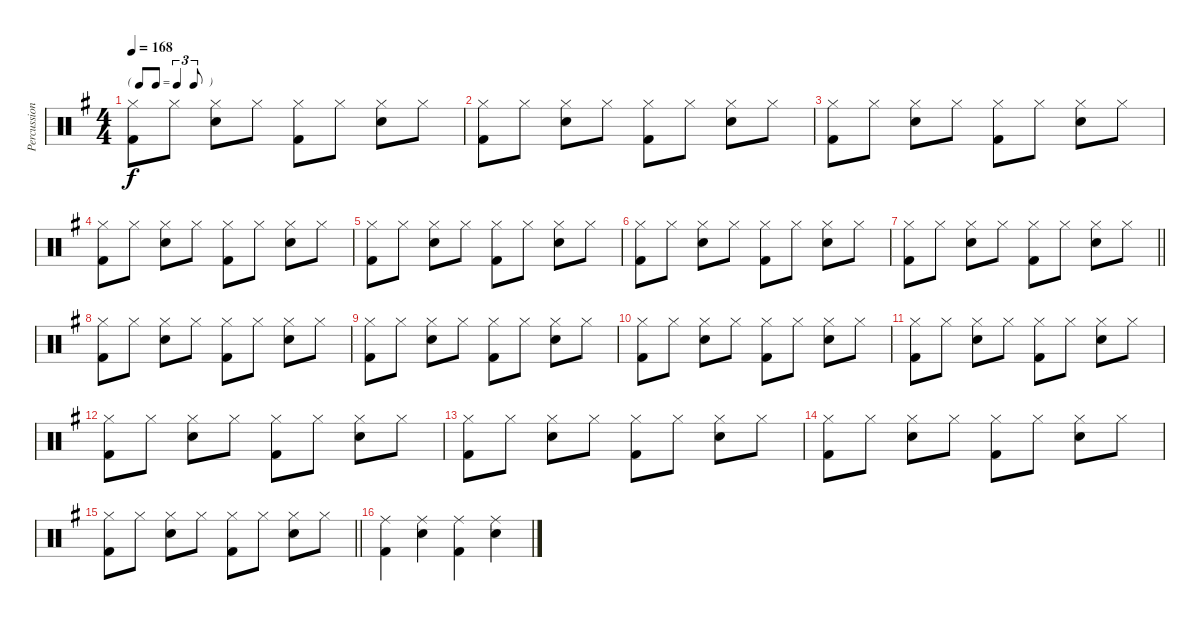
\track ("Percussion" "Percussion") {instrument percussion}
\staff {score}
\articulation defaults
\ts (4 4)
\tf triplet8th
\tempo 168
\clef neutral
\ks g
("Hi-Hat (closed)" "Kick (hit) 2").8{dy f} "Hi-Hat (closed)".8 ("Hi-Hat (closed)" "Snare (hit) 2").8 "Hi-Hat (closed)".8 ("Hi-Hat (closed)" "Kick (hit) 2").8 "Hi-Hat (closed)".8 ("Hi-Hat (closed)" "Snare (hit) 2").8 "Hi-Hat (closed)".8 |
("Hi-Hat (closed)" "Kick (hit) 2").8 "Hi-Hat (closed)".8 ("Hi-Hat (closed)" "Snare (hit) 2").8 "Hi-Hat (closed)".8 ("Hi-Hat (closed)" "Kick (hit) 2").8 "Hi-Hat (closed)".8 ("Hi-Hat (closed)" "Snare (hit) 2").8 "Hi-Hat (closed)".8 |
("Hi-Hat (closed)" "Kick (hit) 2").8 "Hi-Hat (closed)".8 ("Hi-Hat (closed)" "Snare (hit) 2").8 "Hi-Hat (closed)".8 ("Hi-Hat (closed)" "Kick (hit) 2").8 "Hi-Hat (closed)".8 ("Hi-Hat (closed)" "Snare (hit) 2").8 "Hi-Hat (closed)".8 |
("Hi-Hat (closed)" "Kick (hit) 2").8 "Hi-Hat (closed)".8 ("Hi-Hat (closed)" "Snare (hit) 2").8 "Hi-Hat (closed)".8 ("Hi-Hat (closed)" "Kick (hit) 2").8 "Hi-Hat (closed)".8 ("Hi-Hat (closed)" "Snare (hit) 2").8 "Hi-Hat (closed)".8 |
("Hi-Hat (closed)" "Kick (hit) 2").8 "Hi-Hat (closed)".8 ("Hi-Hat (closed)" "Snare (hit) 2").8 "Hi-Hat (closed)".8 ("Hi-Hat (closed)" "Kick (hit) 2").8 "Hi-Hat (closed)".8 ("Hi-Hat (closed)" "Snare (hit) 2").8 "Hi-Hat (closed)".8 |
("Hi-Hat (closed)" "Kick (hit) 2").8 "Hi-Hat (closed)".8 ("Hi-Hat (closed)" "Snare (hit) 2").8 "Hi-Hat (closed)".8 ("Hi-Hat (closed)" "Kick (hit) 2").8 "Hi-Hat (closed)".8 ("Hi-Hat (closed)" "Snare (hit) 2").8 "Hi-Hat (closed)".8 |
\barLineRight lightlight
("Hi-Hat (closed)" "Kick (hit) 2").8 "Hi-Hat (closed)".8 ("Hi-Hat (closed)" "Snare (hit) 2").8 "Hi-Hat (closed)".8 ("Hi-Hat (closed)" "Kick (hit) 2").8 "Hi-Hat (closed)".8 ("Hi-Hat (closed)" "Snare (hit) 2").8 "Hi-Hat (closed)".8 |
("Hi-Hat (closed)" "Kick (hit) 2").8 "Hi-Hat (closed)".8 ("Hi-Hat (closed)" "Snare (hit) 2").8 "Hi-Hat (closed)".8 ("Hi-Hat (closed)" "Kick (hit) 2").8 "Hi-Hat (closed)".8 ("Hi-Hat (closed)" "Snare (hit) 2").8 "Hi-Hat (closed)".8 |
("Hi-Hat (closed)" "Kick (hit) 2").8 "Hi-Hat (closed)".8 ("Hi-Hat (closed)" "Snare (hit) 2").8 "Hi-Hat (closed)".8 ("Hi-Hat (closed)" "Kick (hit) 2").8 "Hi-Hat (closed)".8 ("Hi-Hat (closed)" "Snare (hit) 2").8 "Hi-Hat (closed)".8 |
("Hi-Hat (closed)" "Kick (hit) 2").8 "Hi-Hat (closed)".8 ("Hi-Hat (closed)" "Snare (hit) 2").8 "Hi-Hat (closed)".8 ("Hi-Hat (closed)" "Kick (hit) 2").8 "Hi-Hat (closed)".8 ("Hi-Hat (closed)" "Snare (hit) 2").8 "Hi-Hat (closed)".8 |
("Hi-Hat (closed)" "Kick (hit) 2").8 "Hi-Hat (closed)".8 ("Hi-Hat (closed)" "Snare (hit) 2").8 "Hi-Hat (closed)".8 ("Hi-Hat (closed)" "Kick (hit) 2").8 "Hi-Hat (closed)".8 ("Hi-Hat (closed)" "Snare (hit) 2").8 "Hi-Hat (closed)".8 |
("Hi-Hat (closed)" "Kick (hit) 2").8 "Hi-Hat (closed)".8 ("Hi-Hat (closed)" "Snare (hit) 2").8 "Hi-Hat (closed)".8 ("Hi-Hat (closed)" "Kick (hit) 2").8 "Hi-Hat (closed)".8 ("Hi-Hat (closed)" "Snare (hit) 2").8 "Hi-Hat (closed)".8 |
("Hi-Hat (closed)" "Kick (hit) 2").8 "Hi-Hat (closed)".8 ("Hi-Hat (closed)" "Snare (hit) 2").8 "Hi-Hat (closed)".8 ("Hi-Hat (closed)" "Kick (hit) 2").8 "Hi-Hat (closed)".8 ("Hi-Hat (closed)" "Snare (hit) 2").8 "Hi-Hat (closed)".8 |
("Hi-Hat (closed)" "Kick (hit) 2").8 "Hi-Hat (closed)".8 ("Hi-Hat (closed)" "Snare (hit) 2").8 "Hi-Hat (closed)".8 ("Hi-Hat (closed)" "Kick (hit) 2").8 "Hi-Hat (closed)".8 ("Hi-Hat (closed)" "Snare (hit) 2").8 "Hi-Hat (closed)".8 |
\barLineRight lightlight
("Hi-Hat (closed)" "Kick (hit) 2").8 "Hi-Hat (closed)".8 ("Hi-Hat (closed)" "Snare (hit) 2").8 "Hi-Hat (closed)".8 ("Hi-Hat (closed)" "Kick (hit) 2").8 "Hi-Hat (closed)".8 ("Hi-Hat (closed)" "Snare (hit) 2").8 "Hi-Hat (closed)".8 |
("Ride (middle)" "Kick (hit) 2").4 ("Ride (middle)" "Snare (hit) 2").4 ("Ride (middle)" "Kick (hit) 2").4 ("Ride (middle)" "Snare (hit) 2").4
